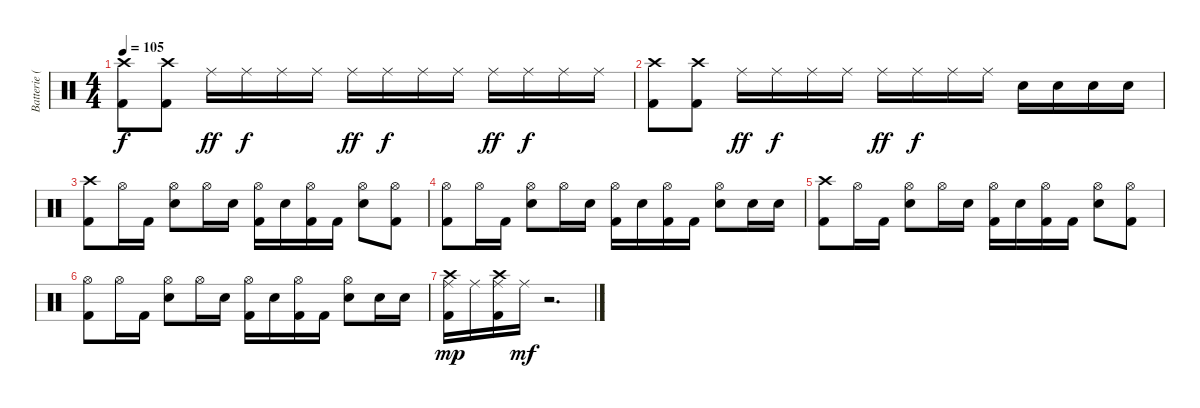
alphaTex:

\track ("Batterie (Preston Nash)" "Batterie (") {instrument percussion}
\staff {score}
\articulation defaults
\ts (4 4)
\tempo 105
\clef neutral
\ks c
("Crash high (hit)" "Kick (hit) 2").8{dy f} ("Crash high (hit)" "Kick (hit) 2").8 "Ride (middle)".16{dy ff} "Ride (middle)".16{dy f} "Ride (middle)".16 "Ride (middle)".16 "Ride (middle)".16{dy ff} "Ride (middle)".16{dy f} "Ride (middle)".16 "Ride (middle)".16 "Ride (middle)".16{dy ff} "Ride (middle)".16{dy f} "Ride (middle)".16 "Ride (middle)".16 |
("Crash high (hit)" "Kick (hit) 2").8 ("Crash high (hit)" "Kick (hit) 2").8 "Ride (middle)".16{dy ff} "Ride (middle)".16{dy f} "Ride (middle)".16 "Ride (middle)".16 "Ride (middle)".16{dy ff} "Ride (middle)".16{dy f} "Ride (middle)".16 "Ride (middle)".16 "Electric Snare (hit)".16 "Electric Snare (hit)".16 "Electric Snare (hit)".16 "Electric Snare (hit)".16 |
("Crash high (hit)" "Kick (hit) 2").8 "Hi-Hat (open)".16 "Kick (hit) 2".16 ("Hi-Hat (open)" "Electric Snare (hit)").8 "Hi-Hat (open)".16 "Electric Snare (hit)".16 ("Hi-Hat (open)" "Kick (hit) 2").16 "Electric Snare (hit)".16 ("Hi-Hat (open)" "Kick (hit) 2").16 "Kick (hit) 2".16 ("Hi-Hat (open)" "Electric Snare (hit)").8 ("Hi-Hat (open)" "Kick (hit) 2").8 |
("Hi-Hat (open)" "Kick (hit) 2").8 "Hi-Hat (open)".16 "Kick (hit) 2".16 ("Hi-Hat (open)" "Electric Snare (hit)").8 "Hi-Hat (open)".16 "Electric Snare (hit)".16 ("Hi-Hat (open)" "Kick (hit) 2").16 "Electric Snare (hit)".16 ("Hi-Hat (open)" "Kick (hit) 2").16 "Kick (hit) 2".16 ("Hi-Hat (open)" "Electric Snare (hit)").8 "Electric Snare (hit)".16 "Electric Snare (hit)".16 |
("Crash high (hit)" "Kick (hit) 2").8 "Hi-Hat (open)".16 "Kick (hit) 2".16 ("Hi-Hat (open)" "Electric Snare (hit)").8 "Hi-Hat (open)".16 "Electric Snare (hit)".16 ("Hi-Hat (open)" "Kick (hit) 2").16 "Electric Snare (hit)".16 ("Hi-Hat (open)" "Kick (hit) 2").16 "Kick (hit) 2".16 ("Hi-Hat (open)" "Electric Snare (hit)").8 ("Hi-Hat (open)" "Kick (hit) 2").8 |
("Hi-Hat (open)" "Kick (hit) 2").8 "Hi-Hat (open)".16 "Kick (hit) 2".16 ("Hi-Hat (open)" "Electric Snare (hit)").8 "Hi-Hat (open)".16 "Electric Snare (hit)".16 ("Hi-Hat (open)" "Kick (hit) 2").16 "Electric Snare (hit)".16 ("Hi-Hat (open)" "Kick (hit) 2").16 "Kick (hit) 2".16 ("Hi-Hat (open)" "Electric Snare (hit)").8 "Electric Snare (hit)".16 "Electric Snare (hit)".16 |
("Crash high (hit)" "Ride (middle)" "Kick (hit) 2").16{dy mp} "Ride (middle)".16 ("Crash high (hit)" "Ride (middle)" "Kick (hit) 2").16 "Ride (middle)".16{dy mf} r.2{d}
